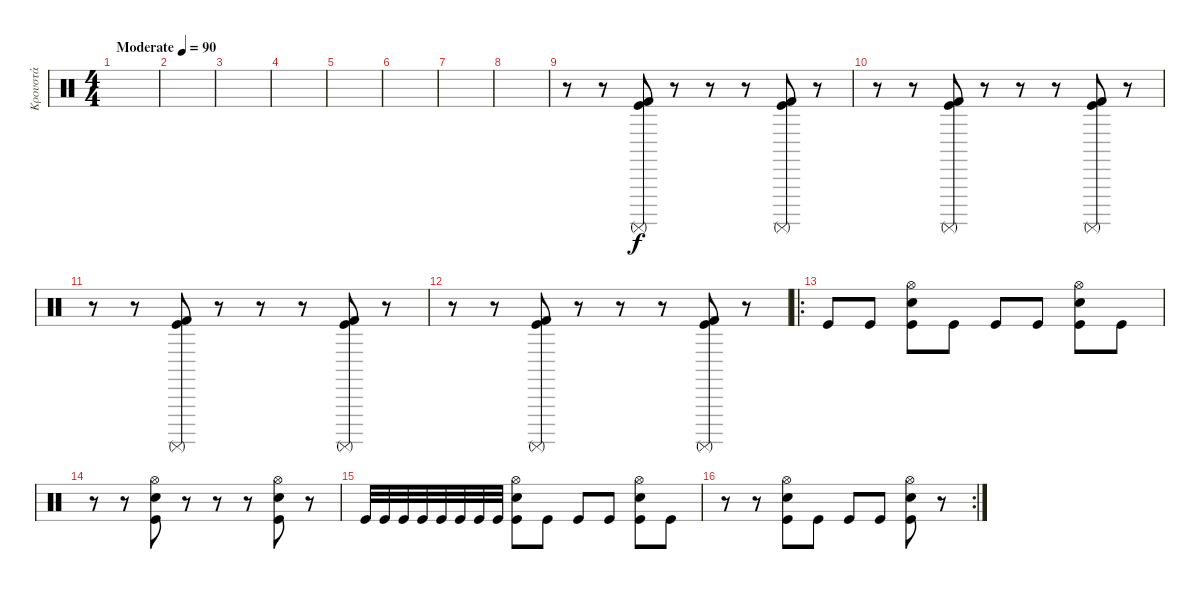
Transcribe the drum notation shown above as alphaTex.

\track ("Κρουστά" "Κρουστά") {instrument percussion}
\staff {score}
\articulation defaults
\ts (4 4)
\tempo (90 "Moderate")
\clef neutral
\ks c
|
|
|
|
|
|
|
|
r.8 r.8 ("Surdo (mute)" "Kick (hit) 2" "Kick (hit)").8 r.8 r.8 r.8 ("Surdo (mute)" "Kick (hit) 2" "Kick (hit)").8 r.8 |
r.8 r.8 ("Surdo (mute)" "Kick (hit) 2" "Kick (hit)").8 r.8 r.8 r.8 ("Surdo (mute)" "Kick (hit) 2" "Kick (hit)").8 r.8 |
r.8 r.8 ("Surdo (mute)" "Kick (hit) 2" "Kick (hit)").8 r.8 r.8 r.8 ("Surdo (mute)" "Kick (hit) 2" "Kick (hit)").8 r.8 |
r.8 r.8 ("Surdo (mute)" "Kick (hit) 2" "Kick (hit)").8 r.8 r.8 r.8 ("Surdo (mute)" "Kick (hit) 2" "Kick (hit)").8 r.8 |
\ro "Kick (hit)".8 "Kick (hit)".8
("Electric Snare (hit)" "Hi-Hat (open)" "Kick (hit)").8 "Kick (hit)".8 "Kick (hit)".8 "Kick (hit)".8 ("Electric Snare (hit)" "Hi-Hat (open)" "Kick (hit)").8 "Kick (hit)".8 |
r.8 r.8 ("Electric Snare (hit)" "Hi-Hat (open)" "Kick (hit)").8 r.8 r.8 r.8 ("Electric Snare (hit)" "Hi-Hat (open)" "Kick (hit)").8 r.8 |
"Kick (hit)".32 "Kick (hit)".32 "Kick (hit)".32 "Kick (hit)".32 "Kick (hit)".32 "Kick (hit)".32 "Kick (hit)".32 "Kick (hit)".32 ("Electric Snare (hit)" "Hi-Hat (open)" "Kick (hit)").8 "Kick (hit)".8 "Kick (hit)".8 "Kick (hit)".8 ("Electric Snare (hit)" "Hi-Hat (open)" "Kick (hit)").8 "Kick (hit)".8 |
\rc 2
r.8 r.8 ("Electric Snare (hit)" "Hi-Hat (open)" "Kick (hit)").8 "Kick (hit)".8 "Kick (hit)".8 "Kick (hit)".8 ("Electric Snare (hit)" "Hi-Hat (open)" "Kick (hit)").8 r.8
